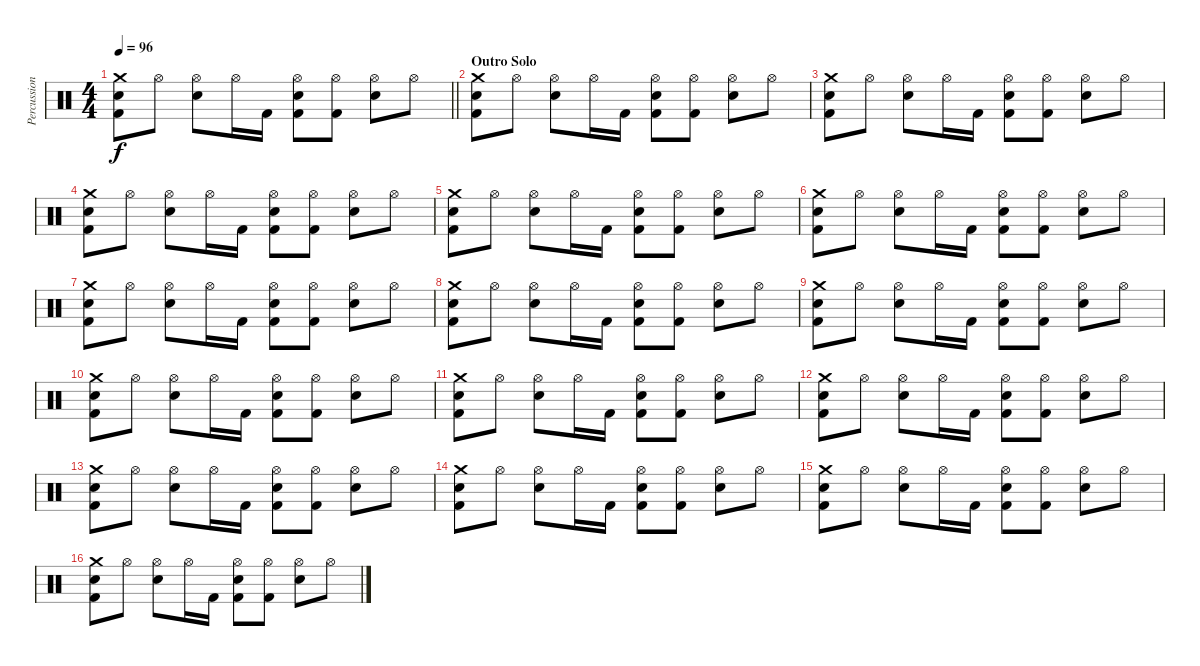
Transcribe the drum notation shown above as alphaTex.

\track ("Percussion" "Percussion") {instrument percussion}
\staff {score}
\articulation defaults
\ts (4 4)
\tempo 96
\clef neutral
\barLineRight lightlight
\ks c
("Crash medium (hit)" "Snare (hit) 2" "Kick (hit) 2").8{dy f} "Hi-Hat (open)".8 ("Hi-Hat (open)" "Snare (hit) 2").8 "Hi-Hat (open)".16 "Kick (hit) 2".16 ("Hi-Hat (open)" "Snare (hit) 2" "Kick (hit) 2").8 ("Hi-Hat (open)" "Kick (hit) 2").8 ("Hi-Hat (open)" "Snare (hit) 2").8 "Hi-Hat (open)".8 |
\section ("" "Outro Solo")
("Crash medium (hit)" "Snare (hit) 2" "Kick (hit) 2").8 "Hi-Hat (open)".8 ("Hi-Hat (open)" "Snare (hit) 2").8 "Hi-Hat (open)".16 "Kick (hit) 2".16 ("Hi-Hat (open)" "Snare (hit) 2" "Kick (hit) 2").8 ("Hi-Hat (open)" "Kick (hit) 2").8 ("Hi-Hat (open)" "Snare (hit) 2").8 "Hi-Hat (open)".8 |
("Crash medium (hit)" "Snare (hit) 2" "Kick (hit) 2").8 "Hi-Hat (open)".8 ("Hi-Hat (open)" "Snare (hit) 2").8 "Hi-Hat (open)".16 "Kick (hit) 2".16 ("Hi-Hat (open)" "Snare (hit) 2" "Kick (hit) 2").8 ("Hi-Hat (open)" "Kick (hit) 2").8 ("Hi-Hat (open)" "Snare (hit) 2").8 "Hi-Hat (open)".8 |
("Crash medium (hit)" "Snare (hit) 2" "Kick (hit) 2").8 "Hi-Hat (open)".8 ("Hi-Hat (open)" "Snare (hit) 2").8 "Hi-Hat (open)".16 "Kick (hit) 2".16 ("Hi-Hat (open)" "Snare (hit) 2" "Kick (hit) 2").8 ("Hi-Hat (open)" "Kick (hit) 2").8 ("Hi-Hat (open)" "Snare (hit) 2").8 "Hi-Hat (open)".8 |
("Crash medium (hit)" "Snare (hit) 2" "Kick (hit) 2").8 "Hi-Hat (open)".8 ("Hi-Hat (open)" "Snare (hit) 2").8 "Hi-Hat (open)".16 "Kick (hit) 2".16 ("Hi-Hat (open)" "Snare (hit) 2" "Kick (hit) 2").8 ("Hi-Hat (open)" "Kick (hit) 2").8 ("Hi-Hat (open)" "Snare (hit) 2").8 "Hi-Hat (open)".8 |
("Crash medium (hit)" "Snare (hit) 2" "Kick (hit) 2").8 "Hi-Hat (open)".8 ("Hi-Hat (open)" "Snare (hit) 2").8 "Hi-Hat (open)".16 "Kick (hit) 2".16 ("Hi-Hat (open)" "Snare (hit) 2" "Kick (hit) 2").8 ("Hi-Hat (open)" "Kick (hit) 2").8 ("Hi-Hat (open)" "Snare (hit) 2").8 "Hi-Hat (open)".8 |
("Crash medium (hit)" "Snare (hit) 2" "Kick (hit) 2").8 "Hi-Hat (open)".8 ("Hi-Hat (open)" "Snare (hit) 2").8 "Hi-Hat (open)".16 "Kick (hit) 2".16 ("Hi-Hat (open)" "Snare (hit) 2" "Kick (hit) 2").8 ("Hi-Hat (open)" "Kick (hit) 2").8 ("Hi-Hat (open)" "Snare (hit) 2").8 "Hi-Hat (open)".8 |
("Crash medium (hit)" "Snare (hit) 2" "Kick (hit) 2").8 "Hi-Hat (open)".8 ("Hi-Hat (open)" "Snare (hit) 2").8 "Hi-Hat (open)".16 "Kick (hit) 2".16 ("Hi-Hat (open)" "Snare (hit) 2" "Kick (hit) 2").8 ("Hi-Hat (open)" "Kick (hit) 2").8 ("Hi-Hat (open)" "Snare (hit) 2").8 "Hi-Hat (open)".8 |
("Crash medium (hit)" "Snare (hit) 2" "Kick (hit) 2").8 "Hi-Hat (open)".8 ("Hi-Hat (open)" "Snare (hit) 2").8 "Hi-Hat (open)".16 "Kick (hit) 2".16 ("Hi-Hat (open)" "Snare (hit) 2" "Kick (hit) 2").8 ("Hi-Hat (open)" "Kick (hit) 2").8 ("Hi-Hat (open)" "Snare (hit) 2").8 "Hi-Hat (open)".8 |
("Crash medium (hit)" "Snare (hit) 2" "Kick (hit) 2").8 "Hi-Hat (open)".8 ("Hi-Hat (open)" "Snare (hit) 2").8 "Hi-Hat (open)".16 "Kick (hit) 2".16 ("Hi-Hat (open)" "Snare (hit) 2" "Kick (hit) 2").8 ("Hi-Hat (open)" "Kick (hit) 2").8 ("Hi-Hat (open)" "Snare (hit) 2").8 "Hi-Hat (open)".8 |
("Crash medium (hit)" "Snare (hit) 2" "Kick (hit) 2").8 "Hi-Hat (open)".8 ("Hi-Hat (open)" "Snare (hit) 2").8 "Hi-Hat (open)".16 "Kick (hit) 2".16 ("Hi-Hat (open)" "Snare (hit) 2" "Kick (hit) 2").8 ("Hi-Hat (open)" "Kick (hit) 2").8 ("Hi-Hat (open)" "Snare (hit) 2").8 "Hi-Hat (open)".8 |
("Crash medium (hit)" "Snare (hit) 2" "Kick (hit) 2").8 "Hi-Hat (open)".8 ("Hi-Hat (open)" "Snare (hit) 2").8 "Hi-Hat (open)".16 "Kick (hit) 2".16 ("Hi-Hat (open)" "Snare (hit) 2" "Kick (hit) 2").8 ("Hi-Hat (open)" "Kick (hit) 2").8 ("Hi-Hat (open)" "Snare (hit) 2").8 "Hi-Hat (open)".8 |
("Crash medium (hit)" "Snare (hit) 2" "Kick (hit) 2").8 "Hi-Hat (open)".8 ("Hi-Hat (open)" "Snare (hit) 2").8 "Hi-Hat (open)".16 "Kick (hit) 2".16 ("Hi-Hat (open)" "Snare (hit) 2" "Kick (hit) 2").8 ("Hi-Hat (open)" "Kick (hit) 2").8 ("Hi-Hat (open)" "Snare (hit) 2").8 "Hi-Hat (open)".8 |
("Crash medium (hit)" "Snare (hit) 2" "Kick (hit) 2").8 "Hi-Hat (open)".8 ("Hi-Hat (open)" "Snare (hit) 2").8 "Hi-Hat (open)".16 "Kick (hit) 2".16 ("Hi-Hat (open)" "Snare (hit) 2" "Kick (hit) 2").8 ("Hi-Hat (open)" "Kick (hit) 2").8 ("Hi-Hat (open)" "Snare (hit) 2").8 "Hi-Hat (open)".8 |
("Crash medium (hit)" "Snare (hit) 2" "Kick (hit) 2").8 "Hi-Hat (open)".8 ("Hi-Hat (open)" "Snare (hit) 2").8 "Hi-Hat (open)".16 "Kick (hit) 2".16 ("Hi-Hat (open)" "Snare (hit) 2" "Kick (hit) 2").8 ("Hi-Hat (open)" "Kick (hit) 2").8 ("Hi-Hat (open)" "Snare (hit) 2").8 "Hi-Hat (open)".8 |
("Crash medium (hit)" "Snare (hit) 2" "Kick (hit) 2").8 "Hi-Hat (open)".8 ("Hi-Hat (open)" "Snare (hit) 2").8 "Hi-Hat (open)".16 "Kick (hit) 2".16 ("Hi-Hat (open)" "Snare (hit) 2" "Kick (hit) 2").8 ("Hi-Hat (open)" "Kick (hit) 2").8 ("Hi-Hat (open)" "Snare (hit) 2").8 "Hi-Hat (open)".8
